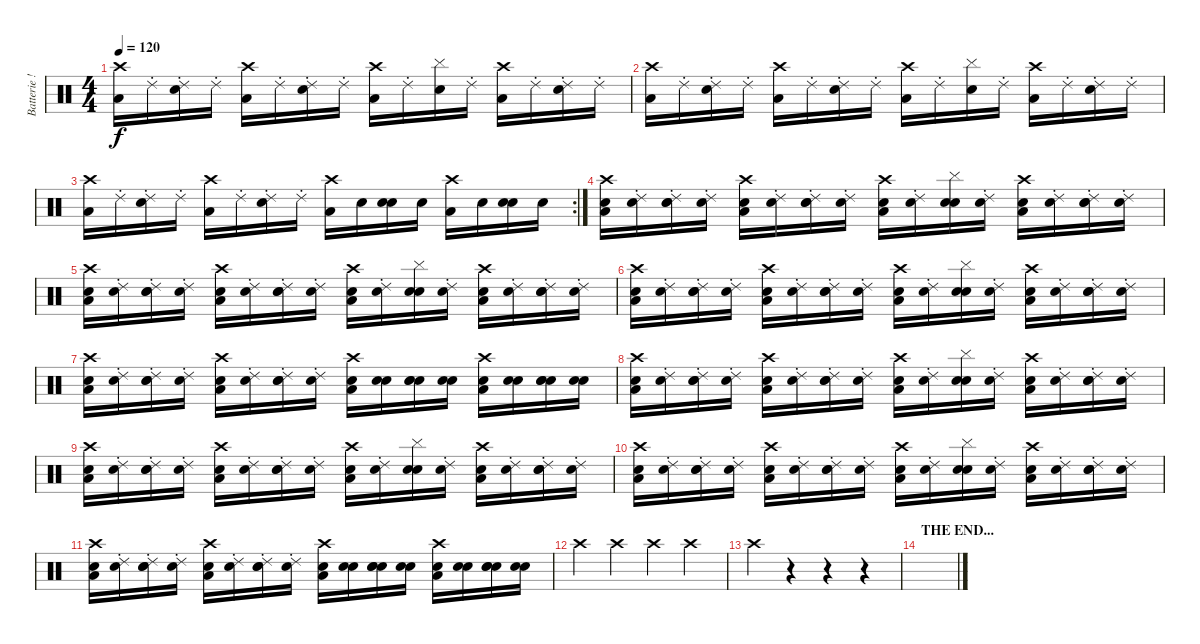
\track ("Batterie !!" "Batterie !") {instrument percussion}
\staff {score}
\articulation defaults
\ts (4 4)
\tempo 120
\clef neutral
\ks c
("Crash high (hit)" "Low Floor Tom (hit)").16{dy f} "Ride (choke) 2".16 ("Ride (choke) 2" "Electric Snare (hit)").16 "Ride (choke) 2".16 ("Crash high (hit)" "Low Floor Tom (hit)").16 "Ride (choke) 2".16 ("Ride (choke) 2" "Electric Snare (hit)").16 "Ride (choke) 2".16 ("Crash high (hit)" "Low Floor Tom (hit)").16 "Ride (choke) 2".16 ("Cymbal (hit)" "Electric Snare (hit)").16 "Ride (choke) 2".16 ("Crash high (hit)" "Low Floor Tom (hit)").16 "Ride (choke) 2".16 ("Ride (choke) 2" "Electric Snare (hit)").16 "Ride (choke) 2".16 |
("Crash high (hit)" "Low Floor Tom (hit)").16 "Ride (choke) 2".16 ("Ride (choke) 2" "Electric Snare (hit)").16 "Ride (choke) 2".16 ("Crash high (hit)" "Low Floor Tom (hit)").16 "Ride (choke) 2".16 ("Ride (choke) 2" "Electric Snare (hit)").16 "Ride (choke) 2".16 ("Crash high (hit)" "Low Floor Tom (hit)").16 "Ride (choke) 2".16 ("Cymbal (hit)" "Electric Snare (hit)").16 "Ride (choke) 2".16 ("Crash high (hit)" "Low Floor Tom (hit)").16 "Ride (choke) 2".16 ("Ride (choke) 2" "Electric Snare (hit)").16 "Ride (choke) 2".16 |
\rc 2
("Crash high (hit)" "Low Floor Tom (hit)").16 "Ride (choke) 2".16 ("Ride (choke) 2" "Electric Snare (hit)").16 "Ride (choke) 2".16 ("Crash high (hit)" "Low Floor Tom (hit)").16 "Ride (choke) 2".16 ("Ride (choke) 2" "Electric Snare (hit)").16 "Ride (choke) 2".16 ("Crash high (hit)" "Low Floor Tom (hit)").16 "Snare (hit) 2".16 ("Snare (hit) 2" "Electric Snare (hit)").16 "Snare (hit) 2".16 ("Crash high (hit)" "Low Floor Tom (hit)").16 "Snare (hit) 2".16 ("Snare (hit) 2" "Electric Snare (hit)").16 "Snare (hit) 2".16 |
("Crash high (hit)" "Low Floor Tom (hit)" "Snare (hit) 2").16 ("Ride (choke) 2" "Snare (hit) 2").16 ("Ride (choke) 2" "Electric Snare (hit)" "Snare (hit) 2").16 ("Ride (choke) 2" "Snare (hit) 2").16 ("Crash high (hit)" "Low Floor Tom (hit)" "Snare (hit) 2").16 ("Ride (choke) 2" "Snare (hit) 2").16 ("Ride (choke) 2" "Electric Snare (hit)" "Snare (hit) 2").16 ("Ride (choke) 2" "Snare (hit) 2").16 ("Crash high (hit)" "Low Floor Tom (hit)" "Snare (hit) 2").16 ("Ride (choke) 2" "Snare (hit) 2").16 ("Cymbal (hit)" "Electric Snare (hit)" "Snare (hit) 2").16 ("Ride (choke) 2" "Snare (hit) 2").16 ("Crash high (hit)" "Low Floor Tom (hit)" "Snare (hit) 2").16 ("Ride (choke) 2" "Snare (hit) 2").16 ("Ride (choke) 2" "Electric Snare (hit)" "Snare (hit) 2").16 ("Ride (choke) 2" "Snare (hit) 2").16 |
("Crash high (hit)" "Low Floor Tom (hit)" "Snare (hit) 2").16 ("Ride (choke) 2" "Snare (hit) 2").16 ("Ride (choke) 2" "Electric Snare (hit)" "Snare (hit) 2").16 ("Ride (choke) 2" "Snare (hit) 2").16 ("Crash high (hit)" "Low Floor Tom (hit)" "Snare (hit) 2").16 ("Ride (choke) 2" "Snare (hit) 2").16 ("Ride (choke) 2" "Electric Snare (hit)" "Snare (hit) 2").16 ("Ride (choke) 2" "Snare (hit) 2").16 ("Crash high (hit)" "Low Floor Tom (hit)" "Snare (hit) 2").16 ("Ride (choke) 2" "Snare (hit) 2").16 ("Cymbal (hit)" "Electric Snare (hit)" "Snare (hit) 2").16 ("Ride (choke) 2" "Snare (hit) 2").16 ("Crash high (hit)" "Low Floor Tom (hit)" "Snare (hit) 2").16 ("Ride (choke) 2" "Snare (hit) 2").16 ("Ride (choke) 2" "Electric Snare (hit)" "Snare (hit) 2").16 ("Ride (choke) 2" "Snare (hit) 2").16 |
("Crash high (hit)" "Low Floor Tom (hit)" "Snare (hit) 2").16 ("Ride (choke) 2" "Snare (hit) 2").16 ("Ride (choke) 2" "Electric Snare (hit)" "Snare (hit) 2").16 ("Ride (choke) 2" "Snare (hit) 2").16 ("Crash high (hit)" "Low Floor Tom (hit)" "Snare (hit) 2").16 ("Ride (choke) 2" "Snare (hit) 2").16 ("Ride (choke) 2" "Electric Snare (hit)" "Snare (hit) 2").16 ("Ride (choke) 2" "Snare (hit) 2").16 ("Crash high (hit)" "Low Floor Tom (hit)" "Snare (hit) 2").16 ("Ride (choke) 2" "Snare (hit) 2").16 ("Cymbal (hit)" "Electric Snare (hit)" "Snare (hit) 2").16 ("Ride (choke) 2" "Snare (hit) 2").16 ("Crash high (hit)" "Low Floor Tom (hit)" "Snare (hit) 2").16 ("Ride (choke) 2" "Snare (hit) 2").16 ("Ride (choke) 2" "Electric Snare (hit)" "Snare (hit) 2").16 ("Ride (choke) 2" "Snare (hit) 2").16 |
("Crash high (hit)" "Low Floor Tom (hit)" "Snare (hit) 2").16 ("Ride (choke) 2" "Snare (hit) 2").16 ("Ride (choke) 2" "Electric Snare (hit)" "Snare (hit) 2").16 ("Ride (choke) 2" "Snare (hit) 2").16 ("Crash high (hit)" "Low Floor Tom (hit)" "Snare (hit) 2").16 ("Ride (choke) 2" "Snare (hit) 2").16 ("Ride (choke) 2" "Electric Snare (hit)" "Snare (hit) 2").16 ("Ride (choke) 2" "Snare (hit) 2").16 ("Crash high (hit)" "Low Floor Tom (hit)" "Snare (hit) 2").16 ("Snare (hit) 2" "Hand Clap (hit)").16 ("Snare (hit) 2" "Electric Snare (hit)" "Hand Clap (hit)").16 ("Snare (hit) 2" "Hand Clap (hit)").16 ("Crash high (hit)" "Low Floor Tom (hit)" "Hand Clap (hit)").16 ("Snare (hit) 2" "Hand Clap (hit)").16 ("Snare (hit) 2" "Electric Snare (hit)" "Hand Clap (hit)").16 ("Snare (hit) 2" "Hand Clap (hit)").16 |
("Crash high (hit)" "Low Floor Tom (hit)" "Snare (hit) 2").16 ("Ride (choke) 2" "Snare (hit) 2").16 ("Ride (choke) 2" "Electric Snare (hit)" "Snare (hit) 2").16 ("Ride (choke) 2" "Snare (hit) 2").16 ("Crash high (hit)" "Low Floor Tom (hit)" "Snare (hit) 2").16 ("Ride (choke) 2" "Snare (hit) 2").16 ("Ride (choke) 2" "Electric Snare (hit)" "Snare (hit) 2").16 ("Ride (choke) 2" "Snare (hit) 2").16 ("Crash high (hit)" "Low Floor Tom (hit)" "Snare (hit) 2").16 ("Ride (choke) 2" "Snare (hit) 2").16 ("Cymbal (hit)" "Electric Snare (hit)" "Snare (hit) 2").16 ("Ride (choke) 2" "Snare (hit) 2").16 ("Crash high (hit)" "Low Floor Tom (hit)" "Snare (hit) 2").16 ("Ride (choke) 2" "Snare (hit) 2").16 ("Ride (choke) 2" "Electric Snare (hit)" "Snare (hit) 2").16 ("Ride (choke) 2" "Snare (hit) 2").16 |
("Crash high (hit)" "Low Floor Tom (hit)" "Snare (hit) 2").16 ("Ride (choke) 2" "Snare (hit) 2").16 ("Ride (choke) 2" "Electric Snare (hit)" "Snare (hit) 2").16 ("Ride (choke) 2" "Snare (hit) 2").16 ("Crash high (hit)" "Low Floor Tom (hit)" "Snare (hit) 2").16 ("Ride (choke) 2" "Snare (hit) 2").16 ("Ride (choke) 2" "Electric Snare (hit)" "Snare (hit) 2").16 ("Ride (choke) 2" "Snare (hit) 2").16 ("Crash high (hit)" "Low Floor Tom (hit)" "Snare (hit) 2").16 ("Ride (choke) 2" "Snare (hit) 2").16 ("Cymbal (hit)" "Electric Snare (hit)" "Snare (hit) 2").16 ("Ride (choke) 2" "Snare (hit) 2").16 ("Crash high (hit)" "Low Floor Tom (hit)" "Snare (hit) 2").16 ("Ride (choke) 2" "Snare (hit) 2").16 ("Ride (choke) 2" "Electric Snare (hit)" "Snare (hit) 2").16 ("Ride (choke) 2" "Snare (hit) 2").16 |
("Crash high (hit)" "Low Floor Tom (hit)" "Snare (hit) 2").16 ("Ride (choke) 2" "Snare (hit) 2").16 ("Ride (choke) 2" "Electric Snare (hit)" "Snare (hit) 2").16 ("Ride (choke) 2" "Snare (hit) 2").16 ("Crash high (hit)" "Low Floor Tom (hit)" "Snare (hit) 2").16 ("Ride (choke) 2" "Snare (hit) 2").16 ("Ride (choke) 2" "Electric Snare (hit)" "Snare (hit) 2").16 ("Ride (choke) 2" "Snare (hit) 2").16 ("Crash high (hit)" "Low Floor Tom (hit)" "Snare (hit) 2").16 ("Ride (choke) 2" "Snare (hit) 2").16 ("Cymbal (hit)" "Electric Snare (hit)" "Snare (hit) 2").16 ("Ride (choke) 2" "Snare (hit) 2").16 ("Crash high (hit)" "Low Floor Tom (hit)" "Snare (hit) 2").16 ("Ride (choke) 2" "Snare (hit) 2").16 ("Ride (choke) 2" "Electric Snare (hit)" "Snare (hit) 2").16 ("Ride (choke) 2" "Snare (hit) 2").16 |
("Crash high (hit)" "Low Floor Tom (hit)" "Snare (hit) 2").16 ("Ride (choke) 2" "Snare (hit) 2").16 ("Ride (choke) 2" "Electric Snare (hit)" "Snare (hit) 2").16 ("Ride (choke) 2" "Snare (hit) 2").16 ("Crash high (hit)" "Low Floor Tom (hit)" "Snare (hit) 2").16 ("Ride (choke) 2" "Snare (hit) 2").16 ("Ride (choke) 2" "Electric Snare (hit)" "Snare (hit) 2").16 ("Ride (choke) 2" "Snare (hit) 2").16 ("Crash high (hit)" "Low Floor Tom (hit)" "Snare (hit) 2").16 ("Snare (hit) 2" "Hand Clap (hit)").16 ("Snare (hit) 2" "Electric Snare (hit)" "Hand Clap (hit)").16 ("Snare (hit) 2" "Hand Clap (hit)").16 ("Crash high (hit)" "Low Floor Tom (hit)" "Hand Clap (hit)").16 ("Snare (hit) 2" "Hand Clap (hit)").16 ("Snare (hit) 2" "Electric Snare (hit)" "Hand Clap (hit)").16 ("Snare (hit) 2" "Hand Clap (hit)").16 |
"Crash high (hit)".4 "Crash high (hit)".4 "Crash high (hit)".4 "Crash high (hit)".4 |
"Crash high (hit)".4 r.4 r.4 r.4 |
\section ("" "THE END...")
